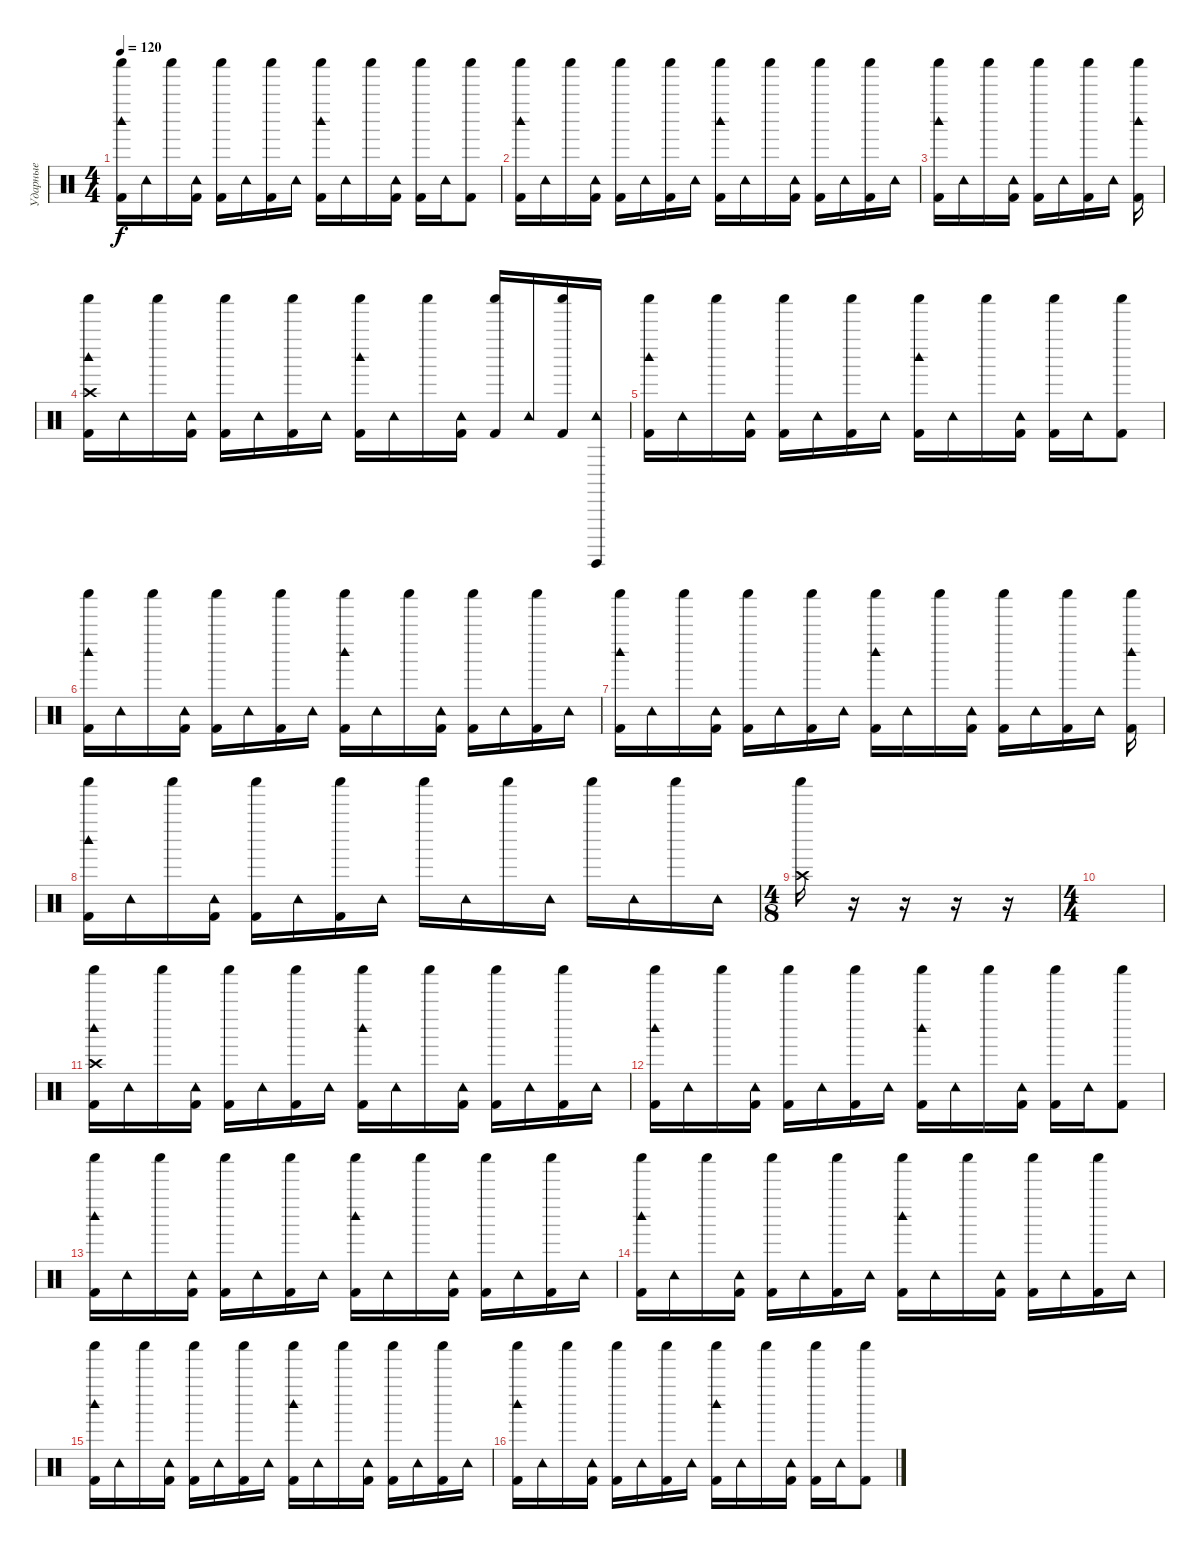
\track ("Ударные" "Ударные") {instrument percussion}
\staff {score}
\articulation defaults
\ts (4 4)
\tempo 120
\clef neutral
\ks c
("Shaker (hit)" "Kick (hit) 2" "Woodblock high (hit)").16{dy f} "Tambourine (hit)".16 "Shaker (hit)".16 ("Tambourine (hit)" "Kick (hit) 2").16 ("Shaker (hit)" "Kick (hit) 2").16 "Tambourine (hit)".16 ("Shaker (hit)" "Kick (hit) 2").16 "Tambourine (hit)".16 ("Shaker (hit)" "Kick (hit) 2" "Woodblock high (hit)").16 "Tambourine (hit)".16 "Shaker (hit)".16 ("Tambourine (hit)" "Kick (hit) 2").16 ("Shaker (hit)" "Kick (hit) 2").16 "Tambourine (hit)".16 ("Shaker (hit)" "Kick (hit) 2").8 |
("Shaker (hit)" "Kick (hit) 2" "Woodblock high (hit)").16 "Tambourine (hit)".16 "Shaker (hit)".16 ("Tambourine (hit)" "Kick (hit) 2").16 ("Shaker (hit)" "Kick (hit) 2").16 "Tambourine (hit)".16 ("Shaker (hit)" "Kick (hit) 2").16 "Tambourine (hit)".16 ("Shaker (hit)" "Kick (hit) 2" "Woodblock high (hit)").16 "Tambourine (hit)".16 "Shaker (hit)".16 ("Tambourine (hit)" "Kick (hit) 2").16 ("Shaker (hit)" "Kick (hit) 2").16 "Tambourine (hit)".16 ("Shaker (hit)" "Kick (hit) 2").16 "Tambourine (hit)".16 |
("Shaker (hit)" "Kick (hit) 2" "Woodblock high (hit)").16 "Tambourine (hit)".16 "Shaker (hit)".16 ("Tambourine (hit)" "Kick (hit) 2").16 ("Shaker (hit)" "Kick (hit) 2").16 "Tambourine (hit)".16 ("Shaker (hit)" "Kick (hit) 2").16 "Tambourine (hit)".16 ("Shaker (hit)" "Kick (hit) 2" "Woodblock high (hit)").16 |
("Shaker (hit)" "Kick (hit) 2" "Crash high (hit)" "Woodblock high (hit)").16 "Tambourine (hit)".16 "Shaker (hit)".16 ("Tambourine (hit)" "Kick (hit) 2").16 ("Shaker (hit)" "Kick (hit) 2").16 "Tambourine (hit)".16 ("Shaker (hit)" "Kick (hit) 2").16 "Tambourine (hit)".16 ("Shaker (hit)" "Kick (hit) 2" "Woodblock high (hit)").16 "Tambourine (hit)".16 "Shaker (hit)".16 ("Tambourine (hit)" "Kick (hit) 2").16 ("Shaker (hit)" "Kick (hit) 2").16 "Tambourine (hit)".16 ("Shaker (hit)" "Kick (hit) 2").16 ("Tambourine (hit)" "Surdo (hit)").16 |
("Shaker (hit)" "Kick (hit) 2" "Woodblock high (hit)").16 "Tambourine (hit)".16 "Shaker (hit)".16 ("Tambourine (hit)" "Kick (hit) 2").16 ("Shaker (hit)" "Kick (hit) 2").16 "Tambourine (hit)".16 ("Shaker (hit)" "Kick (hit) 2").16 "Tambourine (hit)".16 ("Shaker (hit)" "Kick (hit) 2" "Woodblock high (hit)").16 "Tambourine (hit)".16 "Shaker (hit)".16 ("Tambourine (hit)" "Kick (hit) 2").16 ("Shaker (hit)" "Kick (hit) 2").16 "Tambourine (hit)".16 ("Shaker (hit)" "Kick (hit) 2").8 |
("Shaker (hit)" "Kick (hit) 2" "Woodblock high (hit)").16 "Tambourine (hit)".16 "Shaker (hit)".16 ("Tambourine (hit)" "Kick (hit) 2").16 ("Shaker (hit)" "Kick (hit) 2").16 "Tambourine (hit)".16 ("Shaker (hit)" "Kick (hit) 2").16 "Tambourine (hit)".16 ("Shaker (hit)" "Kick (hit) 2" "Woodblock high (hit)").16 "Tambourine (hit)".16 "Shaker (hit)".16 ("Tambourine (hit)" "Kick (hit) 2").16 ("Shaker (hit)" "Kick (hit) 2").16 "Tambourine (hit)".16 ("Shaker (hit)" "Kick (hit) 2").16 "Tambourine (hit)".16 |
("Shaker (hit)" "Kick (hit) 2" "Woodblock high (hit)").16 "Tambourine (hit)".16 "Shaker (hit)".16 ("Tambourine (hit)" "Kick (hit) 2").16 ("Shaker (hit)" "Kick (hit) 2").16 "Tambourine (hit)".16 ("Shaker (hit)" "Kick (hit) 2").16 "Tambourine (hit)".16 ("Shaker (hit)" "Kick (hit) 2" "Woodblock high (hit)").16 "Tambourine (hit)".16 "Shaker (hit)".16 ("Tambourine (hit)" "Kick (hit) 2").16 ("Shaker (hit)" "Kick (hit) 2").16 "Tambourine (hit)".16 ("Shaker (hit)" "Kick (hit) 2").16 "Tambourine (hit)".16 ("Shaker (hit)" "Kick (hit) 2" "Woodblock high (hit)").16 |
("Shaker (hit)" "Kick (hit) 2" "Woodblock high (hit)").16 "Tambourine (hit)".16 "Shaker (hit)".16 ("Tambourine (hit)" "Kick (hit) 2").16 ("Shaker (hit)" "Kick (hit) 2").16 "Tambourine (hit)".16 ("Shaker (hit)" "Kick (hit) 2").16 "Tambourine (hit)".16 "Shaker (hit)".16 "Tambourine (hit)".16 "Shaker (hit)".16 "Tambourine (hit)".16 "Shaker (hit)".16 "Tambourine (hit)".16 "Shaker (hit)".16 "Tambourine (hit)".16 |
\ts (4 8)
("Shaker (hit)" "Crash high (hit)").16 r.16 r.16 r.16 r.16 |
\ts (4 4)
|
("Shaker (hit)" "Kick (hit) 2" "Woodblock high (hit)" "Crash high (hit)").16 "Tambourine (hit)".16 "Shaker (hit)".16 ("Tambourine (hit)" "Kick (hit) 2").16 ("Shaker (hit)" "Kick (hit) 2").16 "Tambourine (hit)".16 ("Shaker (hit)" "Kick (hit) 2").16 "Tambourine (hit)".16 ("Shaker (hit)" "Kick (hit) 2" "Woodblock high (hit)").16 "Tambourine (hit)".16 "Shaker (hit)".16 ("Tambourine (hit)" "Kick (hit) 2").16 ("Shaker (hit)" "Kick (hit) 2").16 "Tambourine (hit)".16 ("Shaker (hit)" "Kick (hit) 2").16 "Tambourine (hit)".16 |
("Shaker (hit)" "Kick (hit) 2" "Woodblock high (hit)").16 "Tambourine (hit)".16 "Shaker (hit)".16 ("Tambourine (hit)" "Kick (hit) 2").16 ("Shaker (hit)" "Kick (hit) 2").16 "Tambourine (hit)".16 ("Shaker (hit)" "Kick (hit) 2").16 "Tambourine (hit)".16 ("Shaker (hit)" "Kick (hit) 2" "Woodblock high (hit)").16 "Tambourine (hit)".16 "Shaker (hit)".16 ("Tambourine (hit)" "Kick (hit) 2").16 ("Shaker (hit)" "Kick (hit) 2").16 "Tambourine (hit)".16 ("Shaker (hit)" "Kick (hit) 2").8 |
("Shaker (hit)" "Kick (hit) 2" "Woodblock high (hit)").16 "Tambourine (hit)".16 "Shaker (hit)".16 ("Tambourine (hit)" "Kick (hit) 2").16 ("Shaker (hit)" "Kick (hit) 2").16 "Tambourine (hit)".16 ("Shaker (hit)" "Kick (hit) 2").16 "Tambourine (hit)".16 ("Shaker (hit)" "Kick (hit) 2" "Woodblock high (hit)").16 "Tambourine (hit)".16 "Shaker (hit)".16 ("Tambourine (hit)" "Kick (hit) 2").16 ("Shaker (hit)" "Kick (hit) 2").16 "Tambourine (hit)".16 ("Shaker (hit)" "Kick (hit) 2").16 "Tambourine (hit)".16 |
("Shaker (hit)" "Kick (hit) 2" "Woodblock high (hit)").16 "Tambourine (hit)".16 "Shaker (hit)".16 ("Tambourine (hit)" "Kick (hit) 2").16 ("Shaker (hit)" "Kick (hit) 2").16 "Tambourine (hit)".16 ("Shaker (hit)" "Kick (hit) 2").16 "Tambourine (hit)".16 ("Shaker (hit)" "Kick (hit) 2" "Woodblock high (hit)").16 "Tambourine (hit)".16 "Shaker (hit)".16 ("Tambourine (hit)" "Kick (hit) 2").16 ("Shaker (hit)" "Kick (hit) 2").16 "Tambourine (hit)".16 ("Shaker (hit)" "Kick (hit) 2").16 "Tambourine (hit)".16 |
("Shaker (hit)" "Kick (hit) 2" "Woodblock high (hit)").16 "Tambourine (hit)".16 "Shaker (hit)".16 ("Tambourine (hit)" "Kick (hit) 2").16 ("Shaker (hit)" "Kick (hit) 2").16 "Tambourine (hit)".16 ("Shaker (hit)" "Kick (hit) 2").16 "Tambourine (hit)".16 ("Shaker (hit)" "Kick (hit) 2" "Woodblock high (hit)").16 "Tambourine (hit)".16 "Shaker (hit)".16 ("Tambourine (hit)" "Kick (hit) 2").16 ("Shaker (hit)" "Kick (hit) 2").16 "Tambourine (hit)".16 ("Shaker (hit)" "Kick (hit) 2").16 "Tambourine (hit)".16 |
("Shaker (hit)" "Kick (hit) 2" "Woodblock high (hit)").16 "Tambourine (hit)".16 "Shaker (hit)".16 ("Tambourine (hit)" "Kick (hit) 2").16 ("Shaker (hit)" "Kick (hit) 2").16 "Tambourine (hit)".16 ("Shaker (hit)" "Kick (hit) 2").16 "Tambourine (hit)".16 ("Shaker (hit)" "Kick (hit) 2" "Woodblock high (hit)").16 "Tambourine (hit)".16 "Shaker (hit)".16 ("Tambourine (hit)" "Kick (hit) 2").16 ("Shaker (hit)" "Kick (hit) 2").16 "Tambourine (hit)".16 ("Shaker (hit)" "Kick (hit) 2").8
